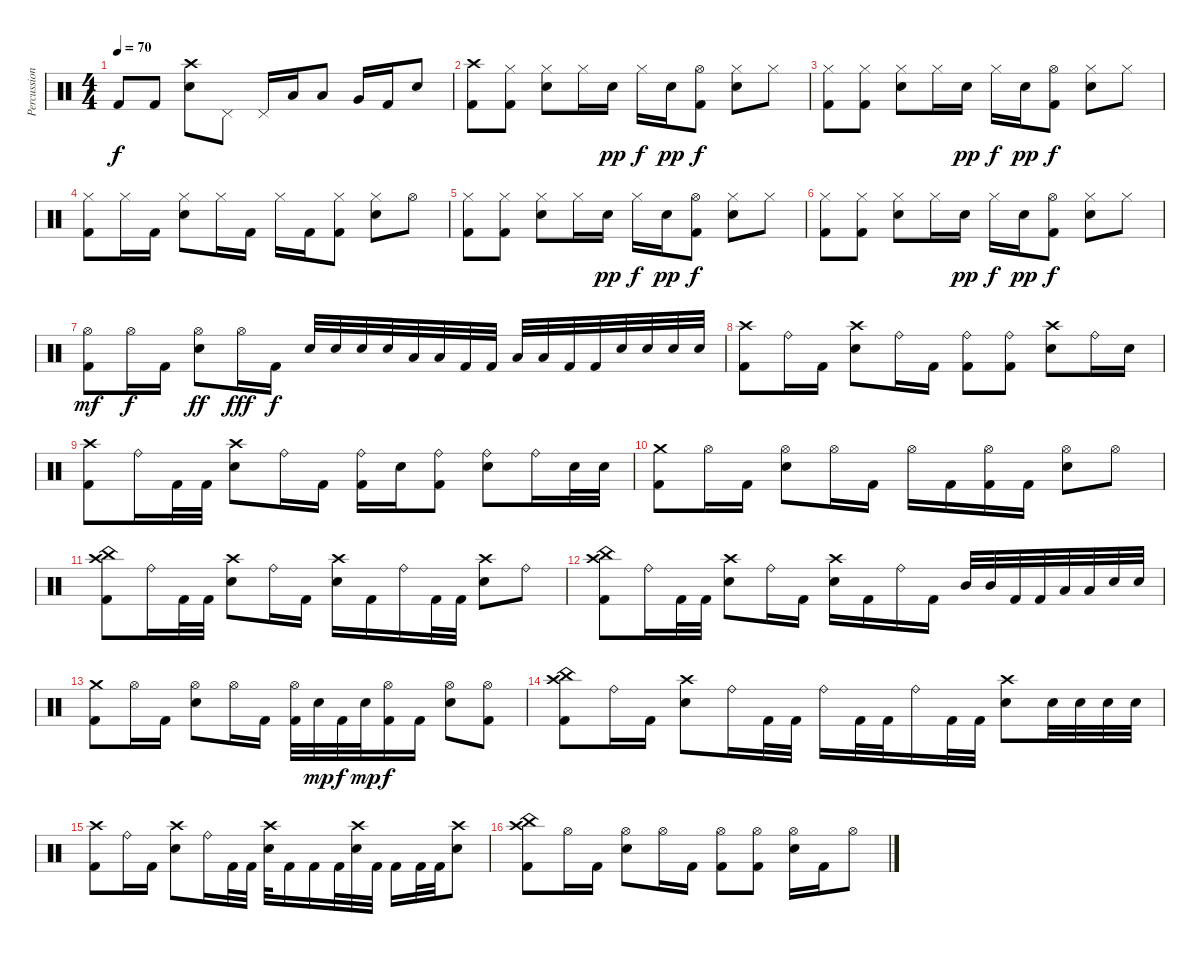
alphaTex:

\track ("Percussion" "Percussion") {instrument percussion}
\staff {score}
\articulation defaults
\ts (4 4)
\tempo 70
\clef neutral
\ks c "Kick (hit) 2".8{dy f} "Kick (hit) 2".8
("Crash high (hit)" "Snare (hit) 2").8 "Pedal Hi-Hat (hit)".8 "Pedal Hi-Hat (hit)".16 "Low Tom (hit)".16 "Low Tom (hit)".8 "Very Low Tom (hit)".16 "Kick (hit) 2".16 "Snare (hit) 2".8 |
("Crash high (hit)" "Kick (hit) 2").8 ("Hi-Hat (closed)" "Kick (hit) 2").8 ("Hi-Hat (closed)" "Snare (hit) 2").8 "Hi-Hat (closed)".16 "Snare (hit) 2".16{dy pp} "Hi-Hat (closed)".16{dy f} "Snare (hit) 2".16{dy pp} ("Hi-Hat (open)" "Kick (hit) 2").8{dy f} ("Hi-Hat (closed)" "Snare (hit) 2").8 "Hi-Hat (closed)".8 |
("Hi-Hat (closed)" "Kick (hit) 2").8 ("Hi-Hat (closed)" "Kick (hit) 2").8 ("Hi-Hat (closed)" "Snare (hit) 2").8 "Hi-Hat (closed)".16 "Snare (hit) 2".16{dy pp} "Hi-Hat (closed)".16{dy f} "Snare (hit) 2".16{dy pp} ("Hi-Hat (open)" "Kick (hit) 2").8{dy f} ("Hi-Hat (closed)" "Snare (hit) 2").8 "Hi-Hat (closed)".8 |
("Hi-Hat (closed)" "Kick (hit) 2").8 "Hi-Hat (closed)".16 "Kick (hit) 2".16 ("Hi-Hat (closed)" "Snare (hit) 2").8 "Hi-Hat (closed)".16 "Kick (hit) 2".16 "Hi-Hat (closed)".16 "Kick (hit) 2".16 ("Hi-Hat (closed)" "Kick (hit) 2").8 ("Hi-Hat (closed)" "Snare (hit) 2").8 "Hi-Hat (open)".8 |
("Hi-Hat (closed)" "Kick (hit) 2").8 ("Hi-Hat (closed)" "Kick (hit) 2").8 ("Hi-Hat (closed)" "Snare (hit) 2").8 "Hi-Hat (closed)".16 "Snare (hit) 2".16{dy pp} "Hi-Hat (closed)".16{dy f} "Snare (hit) 2".16{dy pp} ("Hi-Hat (open)" "Kick (hit) 2").8{dy f} ("Hi-Hat (closed)" "Snare (hit) 2").8 "Hi-Hat (closed)".8 |
("Hi-Hat (closed)" "Kick (hit) 2").8 ("Hi-Hat (closed)" "Kick (hit) 2").8 ("Hi-Hat (closed)" "Snare (hit) 2").8 "Hi-Hat (closed)".16 "Snare (hit) 2".16{dy pp} "Hi-Hat (closed)".16{dy f} "Snare (hit) 2".16{dy pp} ("Hi-Hat (open)" "Kick (hit) 2").8{dy f} ("Hi-Hat (closed)" "Snare (hit) 2").8 "Hi-Hat (closed)".8 |
("Hi-Hat (open)" "Kick (hit) 2").8{dy mf} "Hi-Hat (open)".16{dy f} "Kick (hit) 2".16 ("Hi-Hat (open)" "Snare (hit) 2").8{dy ff} "Hi-Hat (open)".16{dy fff} "Kick (hit) 2".16{dy f} "Snare (hit) 2".32 "Snare (hit) 2".32 "Snare (hit) 2".32 "Snare (hit) 2".32 "Low Floor Tom (hit)".32 "Low Floor Tom (hit)".32 "Kick (hit) 2".32 "Kick (hit) 2".32 "Low Floor Tom (hit)".32 "Low Floor Tom (hit)".32 "Kick (hit) 2".32 "Kick (hit) 2".32 "Snare (hit) 2".32 "Snare (hit) 2".32 "Snare (hit) 2".32 "Snare (hit) 2".32 |
("Crash high (hit)" "Kick (hit) 2").8 "Ride (bell)".16 "Kick (hit) 2".16 ("Crash high (hit)" "Snare (hit) 2").8 "Ride (bell)".16 "Kick (hit) 2".16 ("Ride (bell)" "Kick (hit) 2").8 ("Ride (bell)" "Kick (hit) 2").8 ("Crash high (hit)" "Snare (hit) 2").8 "Ride (bell)".16 "Snare (hit) 2".16 |
("Crash high (hit)" "Kick (hit) 2").8 "Ride (bell)".16 "Kick (hit) 2".32 "Kick (hit) 2".32 ("Crash high (hit)" "Snare (hit) 2").8 "Ride (bell)".16 "Kick (hit) 2".16 ("Ride (bell)" "Kick (hit) 2").16 "Snare (hit) 2".16 ("Ride (bell)" "Kick (hit) 2").8 ("Ride (bell)" "Snare (hit) 2").8 "Ride (bell)".16 "Snare (hit) 2".32 "Snare (hit) 2".32 |
("Crash medium (hit)" "Kick (hit) 2").8 "Hi-Hat (open)".16 "Kick (hit) 2".16 ("Hi-Hat (open)" "Snare (hit) 2").8 "Hi-Hat (open)".16 "Kick (hit) 2".16 "Hi-Hat (open)".16 "Kick (hit) 2".16 ("Hi-Hat (open)" "Kick (hit) 2").16 "Kick (hit) 2".16 ("Hi-Hat (open)" "Snare (hit) 2").8 "Hi-Hat (open)".8 |
("Crash high (hit)" "China (hit)" "Kick (hit) 2").8 "Ride (bell)".16 "Kick (hit) 2".32 "Kick (hit) 2".32 ("Crash high (hit)" "Snare (hit) 2").8 "Ride (bell)".16 "Kick (hit) 2".16 ("Crash high (hit)" "Snare (hit) 2").16 "Kick (hit) 2".16 "Ride (bell)".16 "Kick (hit) 2".32 "Kick (hit) 2".32 ("Crash high (hit)" "Snare (hit) 2").8 "Ride (bell)".8 |
("Crash high (hit)" "China (hit)" "Kick (hit) 2").8 "Ride (bell)".16 "Kick (hit) 2".32 "Kick (hit) 2".32 ("Crash high (hit)" "Snare (hit) 2").8 "Ride (bell)".16 "Kick (hit) 2".16 ("Crash high (hit)" "Snare (hit) 2").16 "Kick (hit) 2".16 "Ride (bell)".16 "Kick (hit) 2".16 "Mid Tom (hit)".32 "Mid Tom (hit)".32 "Kick (hit) 2".32 "Kick (hit) 2".32 "Low Tom (hit)".32 "Low Tom (hit)".32 "Snare (hit) 2".32 "Snare (hit) 2".32 |
("Crash medium (hit)" "Kick (hit) 2").8 "Hi-Hat (open)".16 "Kick (hit) 2".16 ("Hi-Hat (open)" "Snare (hit) 2").8 "Hi-Hat (open)".16 "Kick (hit) 2".16 ("Hi-Hat (open)" "Kick (hit) 2").32 "Snare (hit) 2".32{dy mp} "Kick (hit) 2".32{dy f} "Snare (hit) 2".32{dy mp} ("Hi-Hat (open)" "Kick (hit) 2").16{dy f} "Kick (hit) 2".16 ("Hi-Hat (open)" "Snare (hit) 2").8 ("Hi-Hat (open)" "Kick (hit) 2").8 |
("Crash high (hit)" "China (hit)" "Kick (hit) 2").8 "Ride (bell)".16 "Kick (hit) 2".16 ("Crash high (hit)" "Snare (hit) 2").8 "Ride (bell)".16 "Kick (hit) 2".32 "Kick (hit) 2".32 "Ride (bell)".16 "Kick (hit) 2".32 "Kick (hit) 2".32 "Ride (bell)".16 "Kick (hit) 2".32 "Kick (hit) 2".32 ("Crash high (hit)" "Snare (hit) 2").8 "Snare (hit) 2".32 "Snare (hit) 2".32 "Snare (hit) 2".32 "Snare (hit) 2".32 |
("Crash high (hit)" "Kick (hit) 2").8 "Ride (bell)".16 "Kick (hit) 2".16 ("Crash high (hit)" "Snare (hit) 2").8 "Ride (bell)".16 "Kick (hit) 2".32 "Kick (hit) 2".32 ("Crash high (hit)" "Snare (hit) 2").32 "Kick (hit) 2".16 "Kick (hit) 2".16 "Kick (hit) 2".32 ("Crash high (hit)" "Snare (hit) 2").32 "Kick (hit) 2".32 "Kick (hit) 2".16 "Kick (hit) 2".32 "Kick (hit) 2".32 ("Crash high (hit)" "Snare (hit) 2").8 |
("Crash high (hit)" "China (hit)" "Kick (hit) 2").8 "Hi-Hat (open)".16 "Kick (hit) 2".16 ("Hi-Hat (open)" "Snare (hit) 2").8 "Hi-Hat (open)".16 "Kick (hit) 2".16 ("Hi-Hat (open)" "Kick (hit) 2").8 ("Hi-Hat (open)" "Kick (hit) 2").8 ("Hi-Hat (open)" "Snare (hit) 2").16 "Kick (hit) 2".16 "Hi-Hat (open)".8
